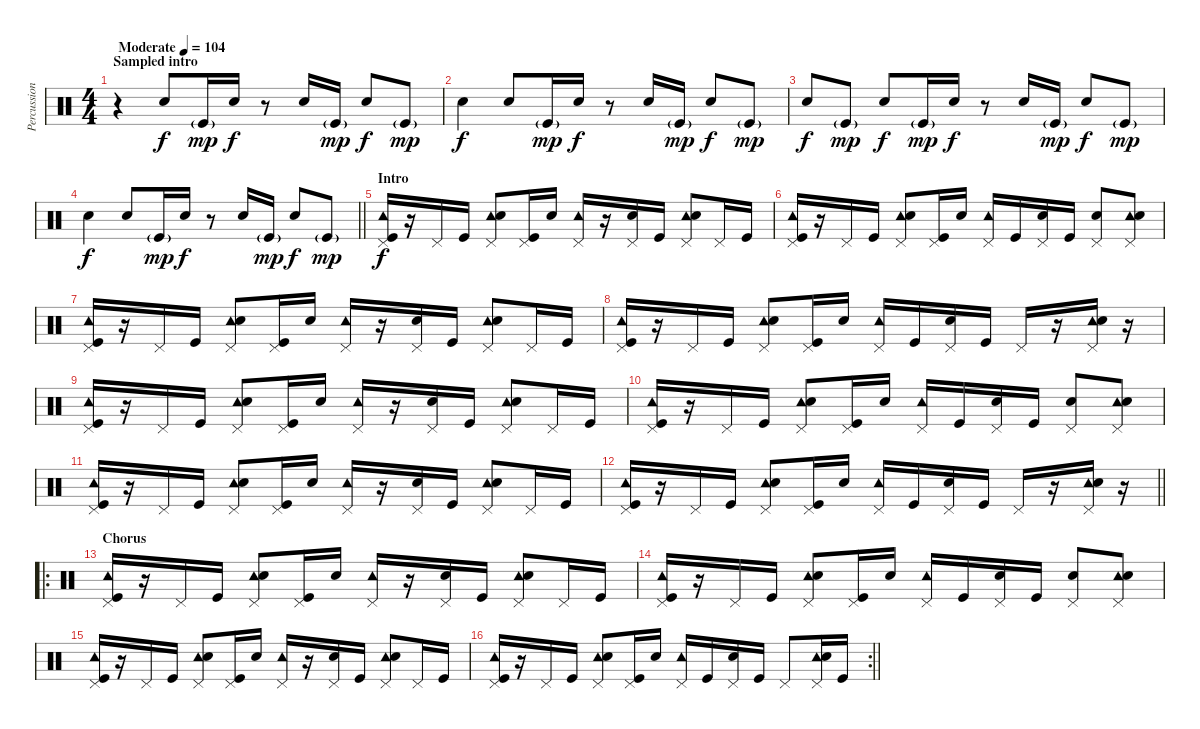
\track ("Percussion" "Percussion") {instrument percussion}
\staff {score}
\articulation defaults
\ts (4 4)
\section ("" "Sampled intro")
\tempo (104 "Moderate")
\clef neutral
\ks c
r.4{dy f} "Snare (hit) 2".8 "Kick (hit)"{g}.16{dy mp} "Snare (hit) 2".16{dy f} r.8 "Snare (hit) 2".16 "Kick (hit)"{g}.16{dy mp} "Snare (hit) 2".8{dy f} "Kick (hit)"{g}.8{dy mp} |
"Snare (hit) 2".4{dy f} "Snare (hit) 2".8 "Kick (hit)"{g}.16{dy mp} "Snare (hit) 2".16{dy f} r.8 "Snare (hit) 2".16 "Kick (hit)"{g}.16{dy mp} "Snare (hit) 2".8{dy f} "Kick (hit)"{g}.8{dy mp} |
"Snare (hit) 2".8{dy f} "Kick (hit)"{g}.8{dy mp} "Snare (hit) 2".8{dy f} "Kick (hit)"{g}.16{dy mp} "Snare (hit) 2".16{dy f} r.8 "Snare (hit) 2".16 "Kick (hit)"{g}.16{dy mp} "Snare (hit) 2".8{dy f} "Kick (hit)"{g}.8{dy mp} |
\barLineRight lightlight "Snare (hit) 2".4{dy f} "Snare (hit) 2".8 "Kick (hit)"{g}.16{dy mp} "Snare (hit) 2".16{dy f}
r.8 "Snare (hit) 2".16 "Kick (hit)"{g}.16{dy mp} "Snare (hit) 2".8{dy f} "Kick (hit)"{g}.8{dy mp} |
\section ("" "Intro")
("Tambourine (hit)" "Pedal Hi-Hat (hit)" "Kick (hit)").16{dy f} r.16 "Pedal Hi-Hat (hit)".16 "Kick (hit)".16 ("Tambourine (hit)" "Pedal Hi-Hat (hit)" "Snare (hit) 2").8 ("Pedal Hi-Hat (hit)" "Kick (hit)").16 "Snare (hit) 2".16 ("Tambourine (hit)" "Pedal Hi-Hat (hit)").16 r.16 ("Pedal Hi-Hat (hit)" "Snare (hit) 2").16 "Kick (hit)".16 ("Tambourine (hit)" "Pedal Hi-Hat (hit)" "Snare (hit) 2").8 "Pedal Hi-Hat (hit)".16 "Kick (hit)".16 |
("Tambourine (hit)" "Pedal Hi-Hat (hit)" "Kick (hit)").16 r.16 "Pedal Hi-Hat (hit)".16 "Kick (hit)".16 ("Tambourine (hit)" "Pedal Hi-Hat (hit)" "Snare (hit) 2").8 ("Pedal Hi-Hat (hit)" "Kick (hit)").16 "Snare (hit) 2".16 ("Tambourine (hit)" "Pedal Hi-Hat (hit)").16 "Kick (hit)".16 ("Pedal Hi-Hat (hit)" "Snare (hit) 2").16 "Kick (hit)".16 ("Pedal Hi-Hat (hit)" "Snare (hit) 2").8 ("Tambourine (hit)" "Pedal Hi-Hat (hit)" "Snare (hit) 2").8 |
("Tambourine (hit)" "Pedal Hi-Hat (hit)" "Kick (hit)").16 r.16 "Pedal Hi-Hat (hit)".16 "Kick (hit)".16 ("Tambourine (hit)" "Pedal Hi-Hat (hit)" "Snare (hit) 2").8 ("Pedal Hi-Hat (hit)" "Kick (hit)").16 "Snare (hit) 2".16 ("Tambourine (hit)" "Pedal Hi-Hat (hit)").16 r.16 ("Pedal Hi-Hat (hit)" "Snare (hit) 2").16 "Kick (hit)".16 ("Tambourine (hit)" "Pedal Hi-Hat (hit)" "Snare (hit) 2").8 "Pedal Hi-Hat (hit)".16 "Kick (hit)".16 |
("Tambourine (hit)" "Pedal Hi-Hat (hit)" "Kick (hit)").16 r.16 "Pedal Hi-Hat (hit)".16 "Kick (hit)".16 ("Tambourine (hit)" "Pedal Hi-Hat (hit)" "Snare (hit) 2").8 ("Pedal Hi-Hat (hit)" "Kick (hit)").16 "Snare (hit) 2".16 ("Tambourine (hit)" "Pedal Hi-Hat (hit)").16 "Kick (hit)".16 ("Pedal Hi-Hat (hit)" "Snare (hit) 2").16 "Kick (hit)".16 "Pedal Hi-Hat (hit)".16 r.16 ("Tambourine (hit)" "Pedal Hi-Hat (hit)" "Snare (hit) 2").16 r.16 |
("Tambourine (hit)" "Pedal Hi-Hat (hit)" "Kick (hit)").16 r.16 "Pedal Hi-Hat (hit)".16 "Kick (hit)".16 ("Tambourine (hit)" "Pedal Hi-Hat (hit)" "Snare (hit) 2").8 ("Pedal Hi-Hat (hit)" "Kick (hit)").16 "Snare (hit) 2".16 ("Tambourine (hit)" "Pedal Hi-Hat (hit)").16 r.16 ("Pedal Hi-Hat (hit)" "Snare (hit) 2").16 "Kick (hit)".16 ("Tambourine (hit)" "Pedal Hi-Hat (hit)" "Snare (hit) 2").8 "Pedal Hi-Hat (hit)".16 "Kick (hit)".16 |
("Tambourine (hit)" "Pedal Hi-Hat (hit)" "Kick (hit)").16 r.16 "Pedal Hi-Hat (hit)".16 "Kick (hit)".16 ("Tambourine (hit)" "Pedal Hi-Hat (hit)" "Snare (hit) 2").8 ("Pedal Hi-Hat (hit)" "Kick (hit)").16 "Snare (hit) 2".16 ("Tambourine (hit)" "Pedal Hi-Hat (hit)").16 "Kick (hit)".16 ("Pedal Hi-Hat (hit)" "Snare (hit) 2").16 "Kick (hit)".16 ("Pedal Hi-Hat (hit)" "Snare (hit) 2").8 ("Tambourine (hit)" "Pedal Hi-Hat (hit)" "Snare (hit) 2").8 |
("Tambourine (hit)" "Pedal Hi-Hat (hit)" "Kick (hit)").16 r.16 "Pedal Hi-Hat (hit)".16 "Kick (hit)".16 ("Tambourine (hit)" "Pedal Hi-Hat (hit)" "Snare (hit) 2").8 ("Pedal Hi-Hat (hit)" "Kick (hit)").16 "Snare (hit) 2".16 ("Tambourine (hit)" "Pedal Hi-Hat (hit)").16 r.16 ("Pedal Hi-Hat (hit)" "Snare (hit) 2").16 "Kick (hit)".16 ("Tambourine (hit)" "Pedal Hi-Hat (hit)" "Snare (hit) 2").8 "Pedal Hi-Hat (hit)".16 "Kick (hit)".16 |
\barLineRight lightlight
("Tambourine (hit)" "Pedal Hi-Hat (hit)" "Kick (hit)").16 r.16 "Pedal Hi-Hat (hit)".16 "Kick (hit)".16 ("Tambourine (hit)" "Pedal Hi-Hat (hit)" "Snare (hit) 2").8 ("Pedal Hi-Hat (hit)" "Kick (hit)").16 "Snare (hit) 2".16 ("Tambourine (hit)" "Pedal Hi-Hat (hit)").16 "Kick (hit)".16 ("Pedal Hi-Hat (hit)" "Snare (hit) 2").16 "Kick (hit)".16 "Pedal Hi-Hat (hit)".16 r.16 ("Tambourine (hit)" "Pedal Hi-Hat (hit)" "Snare (hit) 2").16 r.16 |
\ro
\section ("" "Chorus")
("Tambourine (hit)" "Pedal Hi-Hat (hit)" "Kick (hit)").16 r.16 "Pedal Hi-Hat (hit)".16 "Kick (hit)".16 ("Tambourine (hit)" "Pedal Hi-Hat (hit)" "Snare (hit) 2").8 ("Pedal Hi-Hat (hit)" "Kick (hit)").16 "Snare (hit) 2".16 ("Tambourine (hit)" "Pedal Hi-Hat (hit)").16 r.16 ("Pedal Hi-Hat (hit)" "Snare (hit) 2").16 "Kick (hit)".16 ("Tambourine (hit)" "Pedal Hi-Hat (hit)" "Snare (hit) 2").8 "Pedal Hi-Hat (hit)".16 "Kick (hit)".16 |
("Tambourine (hit)" "Pedal Hi-Hat (hit)" "Kick (hit)").16 r.16 "Pedal Hi-Hat (hit)".16 "Kick (hit)".16 ("Tambourine (hit)" "Pedal Hi-Hat (hit)" "Snare (hit) 2").8 ("Pedal Hi-Hat (hit)" "Kick (hit)").16 "Snare (hit) 2".16 ("Tambourine (hit)" "Pedal Hi-Hat (hit)").16 "Kick (hit)".16 ("Pedal Hi-Hat (hit)" "Snare (hit) 2").16 "Kick (hit)".16 ("Pedal Hi-Hat (hit)" "Snare (hit) 2").8 ("Tambourine (hit)" "Pedal Hi-Hat (hit)" "Snare (hit) 2").8 |
("Tambourine (hit)" "Pedal Hi-Hat (hit)" "Kick (hit)").16 r.16 "Pedal Hi-Hat (hit)".16 "Kick (hit)".16 ("Tambourine (hit)" "Pedal Hi-Hat (hit)" "Snare (hit) 2").8 ("Pedal Hi-Hat (hit)" "Kick (hit)").16 "Snare (hit) 2".16 ("Tambourine (hit)" "Pedal Hi-Hat (hit)").16 r.16 ("Pedal Hi-Hat (hit)" "Snare (hit) 2").16 "Kick (hit)".16 ("Tambourine (hit)" "Pedal Hi-Hat (hit)" "Snare (hit) 2").8 "Pedal Hi-Hat (hit)".16 "Kick (hit)".16 |
\rc 2
\barLineRight lightlight
("Tambourine (hit)" "Pedal Hi-Hat (hit)" "Kick (hit)").16 r.16 "Pedal Hi-Hat (hit)".16 "Kick (hit)".16 ("Tambourine (hit)" "Pedal Hi-Hat (hit)" "Snare (hit) 2").8 ("Pedal Hi-Hat (hit)" "Kick (hit)").16 "Snare (hit) 2".16 ("Tambourine (hit)" "Pedal Hi-Hat (hit)").16 "Kick (hit)".16 ("Pedal Hi-Hat (hit)" "Snare (hit) 2").16 "Kick (hit)".16 "Pedal Hi-Hat (hit)".8 ("Tambourine (hit)" "Pedal Hi-Hat (hit)" "Snare (hit) 2").16 "Kick (hit)".16
